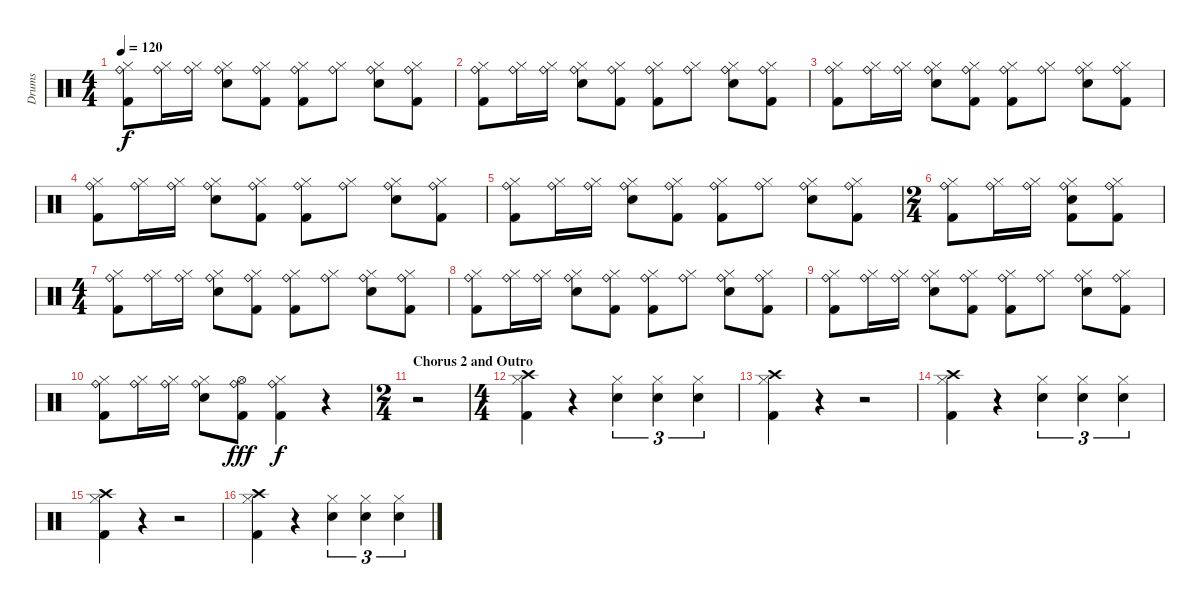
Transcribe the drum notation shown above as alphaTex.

\track ("Drums" "Drums") {instrument percussion}
\staff {score}
\articulation defaults
\ts (4 4)
\tempo 120
\clef neutral
\ks c
("Ride (bell)" "Hi-Hat (closed)" "Kick (hit) 2").8{dy f} ("Ride (bell)" "Hi-Hat (closed)").16 ("Ride (bell)" "Hi-Hat (closed)").16 ("Ride (bell)" "Hi-Hat (closed)" "Snare (hit) 2").8 ("Ride (bell)" "Hi-Hat (closed)" "Kick (hit) 2").8 ("Ride (bell)" "Hi-Hat (closed)" "Kick (hit) 2").8 ("Ride (bell)" "Hi-Hat (closed)").8 ("Ride (bell)" "Hi-Hat (closed)" "Snare (hit) 2").8 ("Ride (bell)" "Hi-Hat (closed)" "Kick (hit) 2").8 |
("Ride (bell)" "Hi-Hat (closed)" "Kick (hit) 2").8 ("Ride (bell)" "Hi-Hat (closed)").16 ("Ride (bell)" "Hi-Hat (closed)").16 ("Ride (bell)" "Hi-Hat (closed)" "Snare (hit) 2").8 ("Ride (bell)" "Hi-Hat (closed)" "Kick (hit) 2").8 ("Ride (bell)" "Hi-Hat (closed)" "Kick (hit) 2").8 ("Ride (bell)" "Hi-Hat (closed)").8 ("Ride (bell)" "Hi-Hat (closed)" "Snare (hit) 2").8 ("Ride (bell)" "Hi-Hat (closed)" "Kick (hit) 2").8 |
("Ride (bell)" "Hi-Hat (closed)" "Kick (hit) 2").8 ("Ride (bell)" "Hi-Hat (closed)").16 ("Ride (bell)" "Hi-Hat (closed)").16 ("Ride (bell)" "Hi-Hat (closed)" "Snare (hit) 2").8 ("Ride (bell)" "Hi-Hat (closed)" "Kick (hit) 2").8 ("Ride (bell)" "Hi-Hat (closed)" "Kick (hit) 2").8 ("Ride (bell)" "Hi-Hat (closed)").8 ("Ride (bell)" "Hi-Hat (closed)" "Snare (hit) 2").8 ("Ride (bell)" "Hi-Hat (closed)" "Kick (hit) 2").8 |
("Ride (bell)" "Hi-Hat (closed)" "Kick (hit) 2").8 ("Ride (bell)" "Hi-Hat (closed)").16 ("Ride (bell)" "Hi-Hat (closed)").16 ("Ride (bell)" "Hi-Hat (closed)" "Snare (hit) 2").8 ("Ride (bell)" "Hi-Hat (closed)" "Kick (hit) 2").8 ("Ride (bell)" "Hi-Hat (closed)" "Kick (hit) 2").8 ("Ride (bell)" "Hi-Hat (closed)").8 ("Ride (bell)" "Hi-Hat (closed)" "Snare (hit) 2").8 ("Ride (bell)" "Hi-Hat (closed)" "Kick (hit) 2").8 |
("Ride (bell)" "Hi-Hat (closed)" "Kick (hit) 2").8 ("Ride (bell)" "Hi-Hat (closed)").16 ("Ride (bell)" "Hi-Hat (closed)").16 ("Ride (bell)" "Hi-Hat (closed)" "Snare (hit) 2").8 ("Ride (bell)" "Hi-Hat (closed)" "Kick (hit) 2").8 ("Ride (bell)" "Hi-Hat (closed)" "Kick (hit) 2").8 ("Ride (bell)" "Hi-Hat (closed)").8 ("Ride (bell)" "Hi-Hat (closed)" "Snare (hit) 2").8 ("Ride (bell)" "Hi-Hat (closed)" "Kick (hit) 2").8 |
\ts (2 4)
("Ride (bell)" "Hi-Hat (closed)" "Kick (hit) 2").8 ("Ride (bell)" "Hi-Hat (closed)").16 ("Ride (bell)" "Hi-Hat (closed)").16 ("Ride (bell)" "Hi-Hat (closed)" "Snare (hit) 2" "Kick (hit) 2").8 ("Ride (bell)" "Hi-Hat (closed)" "Kick (hit) 2").8 |
\ts (4 4)
("Ride (bell)" "Hi-Hat (closed)" "Kick (hit) 2").8 ("Ride (bell)" "Hi-Hat (closed)").16 ("Ride (bell)" "Hi-Hat (closed)").16 ("Ride (bell)" "Hi-Hat (closed)" "Snare (hit) 2").8 ("Ride (bell)" "Hi-Hat (closed)" "Kick (hit) 2").8 ("Ride (bell)" "Hi-Hat (closed)" "Kick (hit) 2").8 ("Ride (bell)" "Hi-Hat (closed)").8 ("Ride (bell)" "Hi-Hat (closed)" "Snare (hit) 2").8 ("Ride (bell)" "Hi-Hat (closed)" "Kick (hit) 2").8 |
("Ride (bell)" "Hi-Hat (closed)" "Kick (hit) 2").8 ("Ride (bell)" "Hi-Hat (closed)").16 ("Ride (bell)" "Hi-Hat (closed)").16 ("Ride (bell)" "Hi-Hat (closed)" "Snare (hit) 2").8 ("Ride (bell)" "Hi-Hat (closed)" "Kick (hit) 2").8 ("Ride (bell)" "Hi-Hat (closed)" "Kick (hit) 2").8 ("Ride (bell)" "Hi-Hat (closed)").8 ("Ride (bell)" "Hi-Hat (closed)" "Snare (hit) 2").8 ("Ride (bell)" "Hi-Hat (closed)" "Kick (hit) 2").8 |
("Ride (bell)" "Hi-Hat (closed)" "Kick (hit) 2").8 ("Ride (bell)" "Hi-Hat (closed)").16 ("Ride (bell)" "Hi-Hat (closed)").16 ("Ride (bell)" "Hi-Hat (closed)" "Snare (hit) 2").8 ("Ride (bell)" "Hi-Hat (closed)" "Kick (hit) 2").8 ("Ride (bell)" "Hi-Hat (closed)" "Kick (hit) 2").8 ("Ride (bell)" "Hi-Hat (closed)").8 ("Ride (bell)" "Hi-Hat (closed)" "Snare (hit) 2").8 ("Ride (bell)" "Hi-Hat (closed)" "Kick (hit) 2").8 |
("Ride (bell)" "Hi-Hat (closed)" "Kick (hit) 2").8 ("Ride (bell)" "Hi-Hat (closed)").16 ("Ride (bell)" "Hi-Hat (closed)").16 ("Ride (bell)" "Hi-Hat (closed)" "Snare (hit) 2").8 ("Ride (bell)" "Hi-Hat (open)" "Kick (hit) 2").8{dy fff} ("Ride (bell)" "Hi-Hat (closed)" "Kick (hit) 2").4{dy f} r.4 |
\ts (2 4)
\section ("" "Chorus 2 and Outro")
r.2 |
\ts (4 4)
("Crash high (hit)" "Hi-Hat (closed)" "Kick (hit) 2").4 r.4 ("Hi-Hat (closed)" "Snare (hit) 2").4{tu (3 2)} ("Hi-Hat (closed)" "Snare (hit) 2").4{tu (3 2)} ("Hi-Hat (closed)" "Snare (hit) 2").4{tu (3 2)} |
("Crash high (hit)" "Hi-Hat (closed)" "Kick (hit) 2").4 r.4 r.2 |
("Crash high (hit)" "Hi-Hat (closed)" "Kick (hit) 2").4 r.4 ("Hi-Hat (closed)" "Snare (hit) 2").4{tu (3 2)} ("Hi-Hat (closed)" "Snare (hit) 2").4{tu (3 2)} ("Hi-Hat (closed)" "Snare (hit) 2").4{tu (3 2)} |
("Crash high (hit)" "Hi-Hat (closed)" "Kick (hit) 2").4 r.4 r.2 |
("Crash high (hit)" "Hi-Hat (closed)" "Kick (hit) 2").4 r.4 ("Hi-Hat (closed)" "Snare (hit) 2").4{tu (3 2)} ("Hi-Hat (closed)" "Snare (hit) 2").4{tu (3 2)} ("Hi-Hat (closed)" "Snare (hit) 2").4{tu (3 2)}
